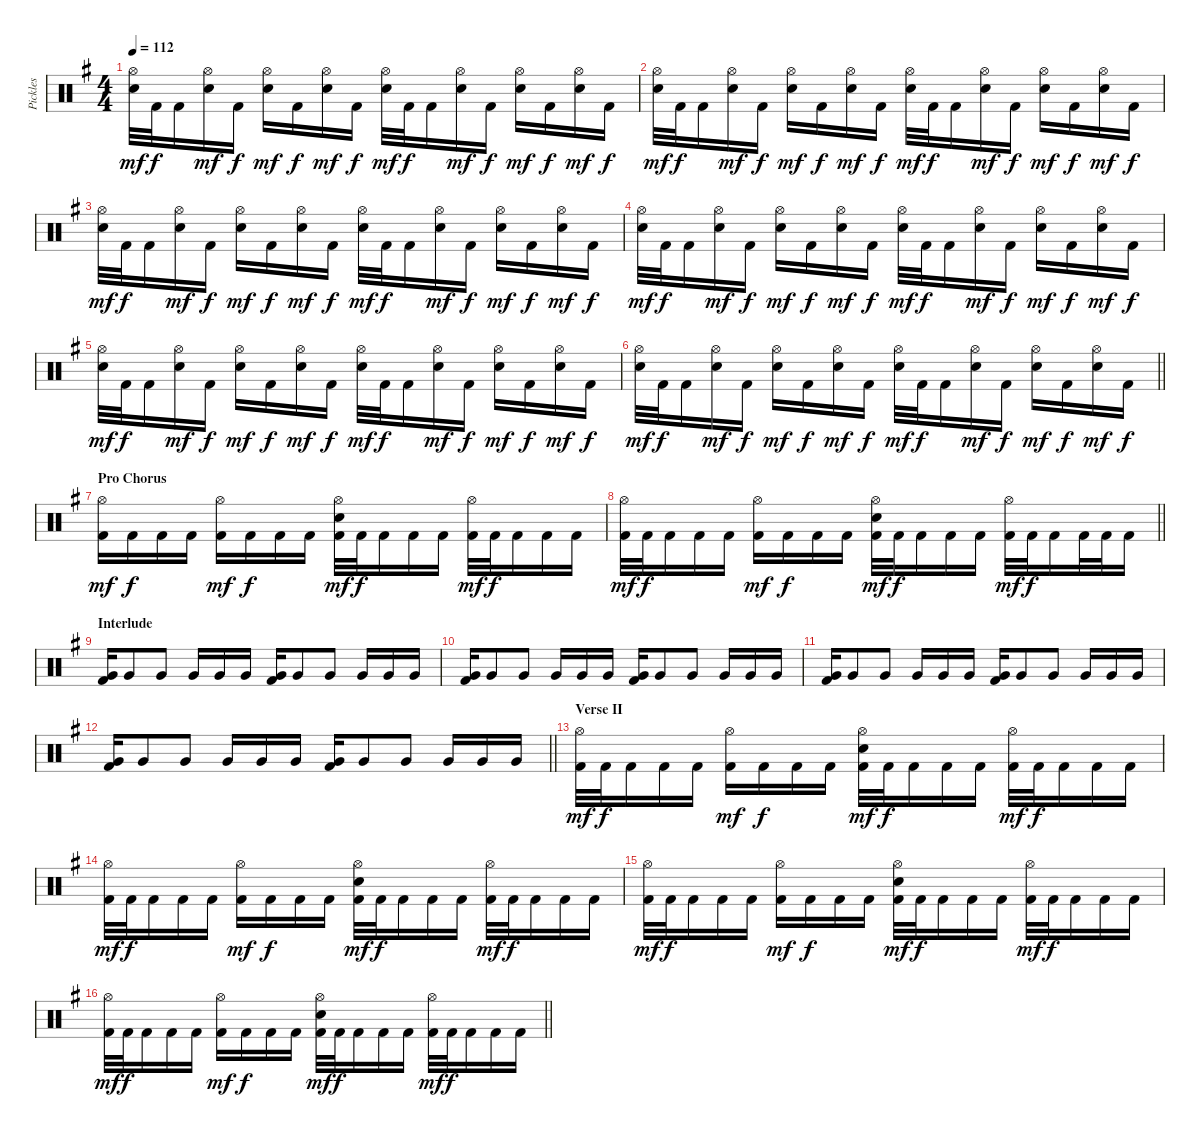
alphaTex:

\track ("Pickles" "Pickles") {instrument percussion}
\staff {score}
\articulation defaults
\ts (4 4)
\tempo 112
\clef neutral
\ks eminor
("Hi-Hat (open)" "Snare (hit) 2").32{dy mf} "Kick (hit) 2".32{dy f} "Kick (hit) 2".16 ("Hi-Hat (open)" "Snare (hit) 2").16{dy mf} "Kick (hit) 2".16{dy f} ("Hi-Hat (open)" "Snare (hit) 2").16{dy mf} "Kick (hit) 2".16{dy f} ("Hi-Hat (open)" "Snare (hit) 2").16{dy mf} "Kick (hit) 2".16{dy f} ("Hi-Hat (open)" "Snare (hit) 2").32{dy mf} "Kick (hit) 2".32{dy f} "Kick (hit) 2".16 ("Hi-Hat (open)" "Snare (hit) 2").16{dy mf} "Kick (hit) 2".16{dy f} ("Hi-Hat (open)" "Snare (hit) 2").16{dy mf} "Kick (hit) 2".16{dy f} ("Hi-Hat (open)" "Snare (hit) 2").16{dy mf} "Kick (hit) 2".16{dy f} |
("Hi-Hat (open)" "Snare (hit) 2").32{dy mf} "Kick (hit) 2".32{dy f} "Kick (hit) 2".16 ("Hi-Hat (open)" "Snare (hit) 2").16{dy mf} "Kick (hit) 2".16{dy f} ("Hi-Hat (open)" "Snare (hit) 2").16{dy mf} "Kick (hit) 2".16{dy f} ("Hi-Hat (open)" "Snare (hit) 2").16{dy mf} "Kick (hit) 2".16{dy f} ("Hi-Hat (open)" "Snare (hit) 2").32{dy mf} "Kick (hit) 2".32{dy f} "Kick (hit) 2".16 ("Hi-Hat (open)" "Snare (hit) 2").16{dy mf} "Kick (hit) 2".16{dy f} ("Hi-Hat (open)" "Snare (hit) 2").16{dy mf} "Kick (hit) 2".16{dy f} ("Hi-Hat (open)" "Snare (hit) 2").16{dy mf} "Kick (hit) 2".16{dy f} |
("Hi-Hat (open)" "Snare (hit) 2").32{dy mf} "Kick (hit) 2".32{dy f} "Kick (hit) 2".16 ("Hi-Hat (open)" "Snare (hit) 2").16{dy mf} "Kick (hit) 2".16{dy f} ("Hi-Hat (open)" "Snare (hit) 2").16{dy mf} "Kick (hit) 2".16{dy f} ("Hi-Hat (open)" "Snare (hit) 2").16{dy mf} "Kick (hit) 2".16{dy f} ("Hi-Hat (open)" "Snare (hit) 2").32{dy mf} "Kick (hit) 2".32{dy f} "Kick (hit) 2".16 ("Hi-Hat (open)" "Snare (hit) 2").16{dy mf} "Kick (hit) 2".16{dy f} ("Hi-Hat (open)" "Snare (hit) 2").16{dy mf} "Kick (hit) 2".16{dy f} ("Hi-Hat (open)" "Snare (hit) 2").16{dy mf} "Kick (hit) 2".16{dy f} |
("Hi-Hat (open)" "Snare (hit) 2").32{dy mf} "Kick (hit) 2".32{dy f} "Kick (hit) 2".16 ("Hi-Hat (open)" "Snare (hit) 2").16{dy mf} "Kick (hit) 2".16{dy f} ("Hi-Hat (open)" "Snare (hit) 2").16{dy mf} "Kick (hit) 2".16{dy f} ("Hi-Hat (open)" "Snare (hit) 2").16{dy mf} "Kick (hit) 2".16{dy f} ("Hi-Hat (open)" "Snare (hit) 2").32{dy mf} "Kick (hit) 2".32{dy f} "Kick (hit) 2".16 ("Hi-Hat (open)" "Snare (hit) 2").16{dy mf} "Kick (hit) 2".16{dy f} ("Hi-Hat (open)" "Snare (hit) 2").16{dy mf} "Kick (hit) 2".16{dy f} ("Hi-Hat (open)" "Snare (hit) 2").16{dy mf} "Kick (hit) 2".16{dy f} |
("Hi-Hat (open)" "Snare (hit) 2").32{dy mf} "Kick (hit) 2".32{dy f} "Kick (hit) 2".16 ("Hi-Hat (open)" "Snare (hit) 2").16{dy mf} "Kick (hit) 2".16{dy f} ("Hi-Hat (open)" "Snare (hit) 2").16{dy mf} "Kick (hit) 2".16{dy f} ("Hi-Hat (open)" "Snare (hit) 2").16{dy mf} "Kick (hit) 2".16{dy f} ("Hi-Hat (open)" "Snare (hit) 2").32{dy mf} "Kick (hit) 2".32{dy f} "Kick (hit) 2".16 ("Hi-Hat (open)" "Snare (hit) 2").16{dy mf} "Kick (hit) 2".16{dy f} ("Hi-Hat (open)" "Snare (hit) 2").16{dy mf} "Kick (hit) 2".16{dy f} ("Hi-Hat (open)" "Snare (hit) 2").16{dy mf} "Kick (hit) 2".16{dy f} |
\barLineRight lightlight
("Hi-Hat (open)" "Snare (hit) 2").32{dy mf} "Kick (hit) 2".32{dy f} "Kick (hit) 2".16 ("Hi-Hat (open)" "Snare (hit) 2").16{dy mf} "Kick (hit) 2".16{dy f} ("Hi-Hat (open)" "Snare (hit) 2").16{dy mf} "Kick (hit) 2".16{dy f} ("Hi-Hat (open)" "Snare (hit) 2").16{dy mf} "Kick (hit) 2".16{dy f} ("Hi-Hat (open)" "Snare (hit) 2").32{dy mf} "Kick (hit) 2".32{dy f} "Kick (hit) 2".16 ("Hi-Hat (open)" "Snare (hit) 2").16{dy mf} "Kick (hit) 2".16{dy f} ("Hi-Hat (open)" "Snare (hit) 2").16{dy mf} "Kick (hit) 2".16{dy f} ("Hi-Hat (open)" "Snare (hit) 2").16{dy mf} "Kick (hit) 2".16{dy f} |
\section ("" "Pro Chorus")
("Hi-Hat (open)" "Kick (hit) 2").16{dy mf} "Kick (hit) 2".16{dy f} "Kick (hit) 2".16 "Kick (hit) 2".16 ("Hi-Hat (open)" "Kick (hit) 2").16{dy mf} "Kick (hit) 2".16{dy f} "Kick (hit) 2".16 "Kick (hit) 2".16 ("Hi-Hat (open)" "Snare (hit) 2" "Kick (hit) 2").32{dy mf} "Kick (hit) 2".32{dy f} "Kick (hit) 2".16 "Kick (hit) 2".16 "Kick (hit) 2".16 ("Hi-Hat (open)" "Kick (hit) 2").32{dy mf} "Kick (hit) 2".32{dy f} "Kick (hit) 2".16 "Kick (hit) 2".16 "Kick (hit) 2".16 |
\barLineRight lightlight
("Hi-Hat (open)" "Kick (hit) 2").32{dy mf} "Kick (hit) 2".32{dy f} "Kick (hit) 2".16 "Kick (hit) 2".16 "Kick (hit) 2".16 ("Hi-Hat (open)" "Kick (hit) 2").16{dy mf} "Kick (hit) 2".16{dy f} "Kick (hit) 2".16 "Kick (hit) 2".16 ("Hi-Hat (open)" "Snare (hit) 2" "Kick (hit) 2").32{dy mf} "Kick (hit) 2".32{dy f} "Kick (hit) 2".16 "Kick (hit) 2".16 "Kick (hit) 2".16 ("Hi-Hat (open)" "Kick (hit) 2").32{dy mf} "Kick (hit) 2".32{dy f} "Kick (hit) 2".16 "Kick (hit) 2".32 "Kick (hit) 2".32 "Kick (hit) 2".16 |
\section ("" "Interlude")
("Very Low Tom (hit)" "Kick (hit) 2").16 "Very Low Tom (hit)".8 "Very Low Tom (hit)".8 "Very Low Tom (hit)".16 "Very Low Tom (hit)".16 "Very Low Tom (hit)".16 ("Very Low Tom (hit)" "Kick (hit) 2").16 "Very Low Tom (hit)".8 "Very Low Tom (hit)".8 "Very Low Tom (hit)".16 "Very Low Tom (hit)".16 "Very Low Tom (hit)".16 |
("Very Low Tom (hit)" "Kick (hit) 2").16 "Very Low Tom (hit)".8 "Very Low Tom (hit)".8 "Very Low Tom (hit)".16 "Very Low Tom (hit)".16 "Very Low Tom (hit)".16 ("Very Low Tom (hit)" "Kick (hit) 2").16 "Very Low Tom (hit)".8 "Very Low Tom (hit)".8 "Very Low Tom (hit)".16 "Very Low Tom (hit)".16 "Very Low Tom (hit)".16 |
("Very Low Tom (hit)" "Kick (hit) 2").16 "Very Low Tom (hit)".8 "Very Low Tom (hit)".8 "Very Low Tom (hit)".16 "Very Low Tom (hit)".16 "Very Low Tom (hit)".16 ("Very Low Tom (hit)" "Kick (hit) 2").16 "Very Low Tom (hit)".8 "Very Low Tom (hit)".8 "Very Low Tom (hit)".16 "Very Low Tom (hit)".16 "Very Low Tom (hit)".16 |
\barLineRight lightlight
("Very Low Tom (hit)" "Kick (hit) 2").16 "Very Low Tom (hit)".8 "Very Low Tom (hit)".8 "Very Low Tom (hit)".16 "Very Low Tom (hit)".16 "Very Low Tom (hit)".16 ("Very Low Tom (hit)" "Kick (hit) 2").16 "Very Low Tom (hit)".8 "Very Low Tom (hit)".8 "Very Low Tom (hit)".16 "Very Low Tom (hit)".16 "Very Low Tom (hit)".16 |
\section ("" "Verse II")
("Hi-Hat (open)" "Kick (hit) 2").32{dy mf} "Kick (hit) 2".32{dy f} "Kick (hit) 2".16 "Kick (hit) 2".16 "Kick (hit) 2".16 ("Hi-Hat (open)" "Kick (hit) 2").16{dy mf} "Kick (hit) 2".16{dy f} "Kick (hit) 2".16 "Kick (hit) 2".16 ("Hi-Hat (open)" "Snare (hit) 2" "Kick (hit) 2").32{dy mf} "Kick (hit) 2".32{dy f} "Kick (hit) 2".16 "Kick (hit) 2".16 "Kick (hit) 2".16 ("Hi-Hat (open)" "Kick (hit) 2").32{dy mf} "Kick (hit) 2".32{dy f} "Kick (hit) 2".16 "Kick (hit) 2".16 "Kick (hit) 2".16 |
("Hi-Hat (open)" "Kick (hit) 2").32{dy mf} "Kick (hit) 2".32{dy f} "Kick (hit) 2".16 "Kick (hit) 2".16 "Kick (hit) 2".16 ("Hi-Hat (open)" "Kick (hit) 2").16{dy mf} "Kick (hit) 2".16{dy f} "Kick (hit) 2".16 "Kick (hit) 2".16 ("Hi-Hat (open)" "Snare (hit) 2" "Kick (hit) 2").32{dy mf} "Kick (hit) 2".32{dy f} "Kick (hit) 2".16 "Kick (hit) 2".16 "Kick (hit) 2".16 ("Hi-Hat (open)" "Kick (hit) 2").32{dy mf} "Kick (hit) 2".32{dy f} "Kick (hit) 2".16 "Kick (hit) 2".16 "Kick (hit) 2".16 |
("Hi-Hat (open)" "Kick (hit) 2").32{dy mf} "Kick (hit) 2".32{dy f} "Kick (hit) 2".16 "Kick (hit) 2".16 "Kick (hit) 2".16 ("Hi-Hat (open)" "Kick (hit) 2").16{dy mf} "Kick (hit) 2".16{dy f} "Kick (hit) 2".16 "Kick (hit) 2".16 ("Hi-Hat (open)" "Snare (hit) 2" "Kick (hit) 2").32{dy mf} "Kick (hit) 2".32{dy f} "Kick (hit) 2".16 "Kick (hit) 2".16 "Kick (hit) 2".16 ("Hi-Hat (open)" "Kick (hit) 2").32{dy mf} "Kick (hit) 2".32{dy f} "Kick (hit) 2".16 "Kick (hit) 2".16 "Kick (hit) 2".16 |
\barLineRight lightlight
("Hi-Hat (open)" "Kick (hit) 2").32{dy mf} "Kick (hit) 2".32{dy f} "Kick (hit) 2".16 "Kick (hit) 2".16 "Kick (hit) 2".16 ("Hi-Hat (open)" "Kick (hit) 2").16{dy mf} "Kick (hit) 2".16{dy f} "Kick (hit) 2".16 "Kick (hit) 2".16 ("Hi-Hat (open)" "Snare (hit) 2" "Kick (hit) 2").32{dy mf} "Kick (hit) 2".32{dy f} "Kick (hit) 2".16 "Kick (hit) 2".16 "Kick (hit) 2".16 ("Hi-Hat (open)" "Kick (hit) 2").32{dy mf} "Kick (hit) 2".32{dy f} "Kick (hit) 2".16 "Kick (hit) 2".16 "Kick (hit) 2".16
